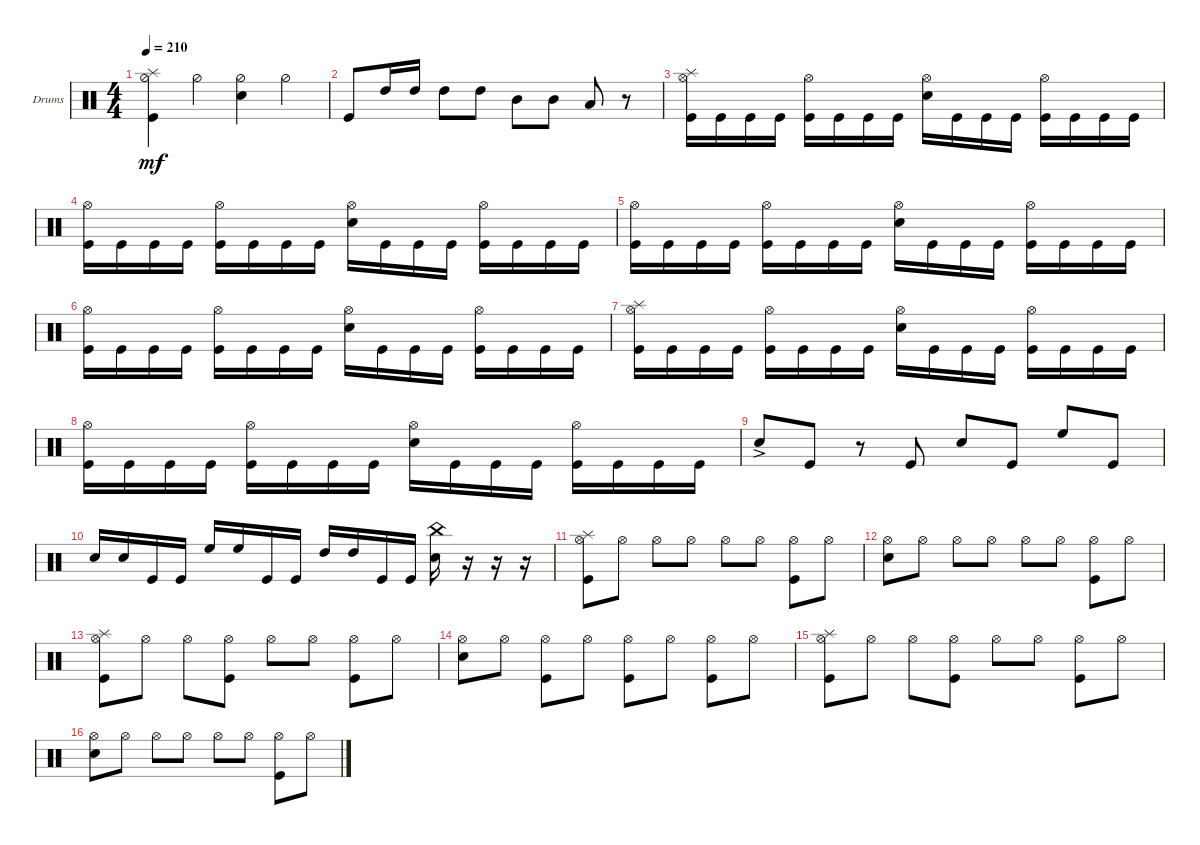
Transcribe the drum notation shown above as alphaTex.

\bracketExtendMode groupsimilarinstruments
\firstSystemTrackNameOrientation horizontal
\otherSystemsTrackNameOrientation horizontal
\track ("Drumkit" "Drums") {instrument percussion}
\staff {score}
\articulation defaults
\ts (4 4)
\tempo 210
\clef neutral
\ks c
("Kick (hit)" "Splash (hit)" "Hi-Hat (half)").4{dy mf} "Hi-Hat (half)".4 ("Snare (hit) 2" "Hi-Hat (half)").4 "Hi-Hat (half)".4 |
"Kick (hit)".8 "High Tom (hit)".16 "High Tom (hit)".16 "High Tom (hit)".8 "High Tom (hit)".8 "Mid Tom (hit)".8 "Mid Tom (hit)".8 "Low Tom (hit)".8 r.8 |
("Kick (hit)" "Splash (hit)" "Hi-Hat (open)").16 "Kick (hit)".16 "Kick (hit)".16 "Kick (hit)".16 ("Kick (hit)" "Hi-Hat (open)").16 "Kick (hit)".16 "Kick (hit)".16 "Kick (hit)".16 ("Snare (hit) 2" "Hi-Hat (open)").16 "Kick (hit)".16 "Kick (hit)".16 "Kick (hit)".16 ("Kick (hit)" "Hi-Hat (open)").16 "Kick (hit)".16 "Kick (hit)".16 "Kick (hit)".16 |
("Kick (hit)" "Hi-Hat (open)").16 "Kick (hit)".16 "Kick (hit)".16 "Kick (hit)".16 ("Kick (hit)" "Hi-Hat (open)").16 "Kick (hit)".16 "Kick (hit)".16 "Kick (hit)".16 ("Snare (hit) 2" "Hi-Hat (open)").16 "Kick (hit)".16 "Kick (hit)".16 "Kick (hit)".16 ("Kick (hit)" "Hi-Hat (open)").16 "Kick (hit)".16 "Kick (hit)".16 "Kick (hit)".16 |
("Kick (hit)" "Hi-Hat (open)").16 "Kick (hit)".16 "Kick (hit)".16 "Kick (hit)".16 ("Kick (hit)" "Hi-Hat (open)").16 "Kick (hit)".16 "Kick (hit)".16 "Kick (hit)".16 ("Snare (hit) 2" "Hi-Hat (open)").16 "Kick (hit)".16 "Kick (hit)".16 "Kick (hit)".16 ("Kick (hit)" "Hi-Hat (open)").16 "Kick (hit)".16 "Kick (hit)".16 "Kick (hit)".16 |
("Kick (hit)" "Hi-Hat (open)").16 "Kick (hit)".16 "Kick (hit)".16 "Kick (hit)".16 ("Kick (hit)" "Hi-Hat (open)").16 "Kick (hit)".16 "Kick (hit)".16 "Kick (hit)".16 ("Snare (hit) 2" "Hi-Hat (open)").16 "Kick (hit)".16 "Kick (hit)".16 "Kick (hit)".16 ("Kick (hit)" "Hi-Hat (open)").16 "Kick (hit)".16 "Kick (hit)".16 "Kick (hit)".16 |
("Kick (hit)" "Splash (hit)" "Hi-Hat (open)").16 "Kick (hit)".16 "Kick (hit)".16 "Kick (hit)".16 ("Kick (hit)" "Hi-Hat (open)").16 "Kick (hit)".16 "Kick (hit)".16 "Kick (hit)".16 ("Snare (hit) 2" "Hi-Hat (open)").16 "Kick (hit)".16 "Kick (hit)".16 "Kick (hit)".16 ("Kick (hit)" "Hi-Hat (open)").16 "Kick (hit)".16 "Kick (hit)".16 "Kick (hit)".16 |
("Kick (hit)" "Hi-Hat (open)").16 "Kick (hit)".16 "Kick (hit)".16 "Kick (hit)".16 ("Kick (hit)" "Hi-Hat (open)").16 "Kick (hit)".16 "Kick (hit)".16 "Kick (hit)".16 ("Snare (hit) 2" "Hi-Hat (open)").16 "Kick (hit)".16 "Kick (hit)".16 "Kick (hit)".16 ("Kick (hit)" "Hi-Hat (open)").16 "Kick (hit)".16 "Kick (hit)".16 "Kick (hit)".16 |
"Snare (hit) 2"{ac}.8 "Kick (hit)".8 r.8 "Kick (hit)".8 "Snare (hit) 2".8 "Kick (hit)".8 "High Floor Tom (hit)".8 "Kick (hit)".8 |
"Snare (hit) 2".16 "Snare (hit) 2".16 "Kick (hit)".16 "Kick (hit)".16 "High Floor Tom (hit)".16 "High Floor Tom (hit)".16 "Kick (hit)".16 "Kick (hit)".16 "High Tom (hit)".16 "High Tom (hit)".16 "Kick (hit)".16 "Kick (hit)".16 ("Snare (hit) 2" "China (hit)").16 r.16 r.16 r.16 |
("Kick (hit)" "Hi-Hat (open)" "Splash (hit)").8 "Hi-Hat (open)".8 "Hi-Hat (open)".8 "Hi-Hat (open)".8 "Hi-Hat (open)".8 "Hi-Hat (open)".8 ("Kick (hit)" "Hi-Hat (open)").8 "Hi-Hat (open)".8 |
("Snare (hit) 2" "Hi-Hat (open)").8 "Hi-Hat (open)".8 "Hi-Hat (open)".8 "Hi-Hat (open)".8 "Hi-Hat (open)".8 "Hi-Hat (open)".8 ("Kick (hit)" "Hi-Hat (open)").8 "Hi-Hat (open)".8 |
("Kick (hit)" "Hi-Hat (open)" "Splash (hit)").8 "Hi-Hat (open)".8 "Hi-Hat (open)".8 ("Kick (hit)" "Hi-Hat (open)").8 "Hi-Hat (open)".8 "Hi-Hat (open)".8 ("Kick (hit)" "Hi-Hat (open)").8 "Hi-Hat (open)".8 |
("Snare (hit) 2" "Hi-Hat (open)").8 "Hi-Hat (open)".8 ("Kick (hit)" "Hi-Hat (open)").8 "Hi-Hat (open)".8 ("Kick (hit)" "Hi-Hat (open)").8 "Hi-Hat (open)".8 ("Kick (hit)" "Hi-Hat (open)").8 "Hi-Hat (open)".8 |
("Kick (hit)" "Hi-Hat (open)" "Splash (hit)").8 "Hi-Hat (open)".8 "Hi-Hat (open)".8 ("Kick (hit)" "Hi-Hat (open)").8 "Hi-Hat (open)".8 "Hi-Hat (open)".8 ("Kick (hit)" "Hi-Hat (open)").8 "Hi-Hat (open)".8 |
("Snare (hit) 2" "Hi-Hat (open)").8 "Hi-Hat (open)".8 "Hi-Hat (open)".8 "Hi-Hat (open)".8 "Hi-Hat (open)".8 "Hi-Hat (open)".8 ("Kick (hit)" "Hi-Hat (open)").8 "Hi-Hat (open)".8
